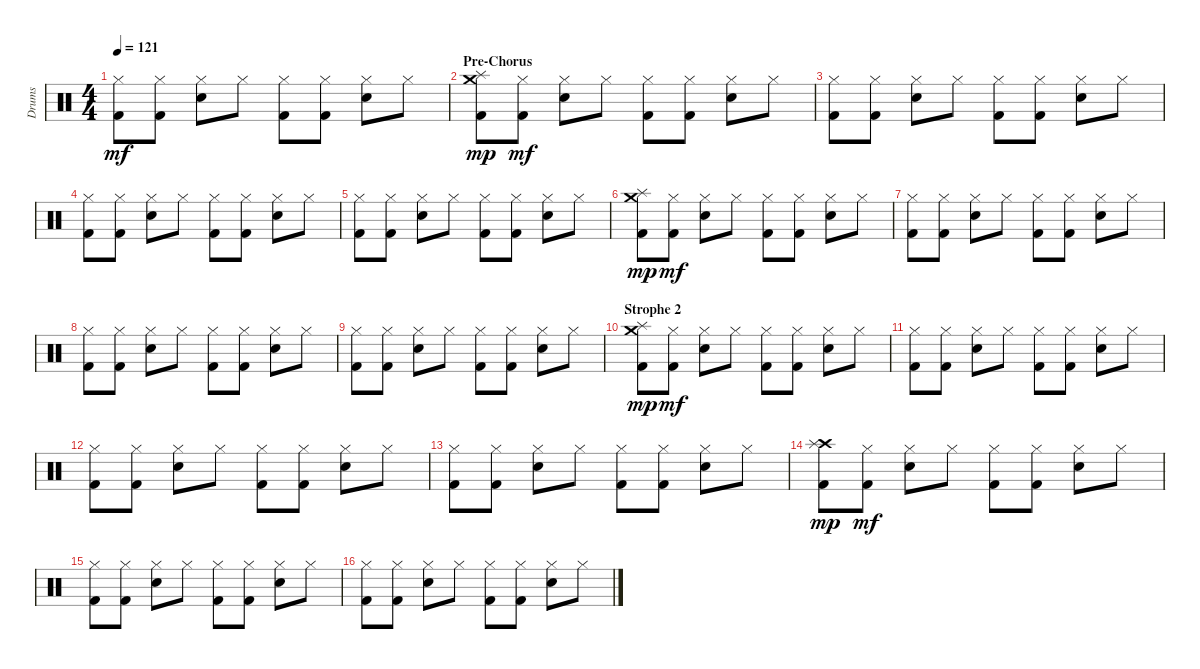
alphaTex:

\track ("Drums" "Drums") {instrument percussion}
\staff {score}
\articulation defaults
\ts (4 4)
\tempo 121
\clef neutral
\ks c
("Hi-Hat (closed)" "Kick (hit) 2").8{dy mf} ("Hi-Hat (closed)" "Kick (hit) 2").8 ("Hi-Hat (closed)" "Electric Snare (hit)").8 "Hi-Hat (closed)".8 ("Hi-Hat (closed)" "Kick (hit) 2").8 ("Hi-Hat (closed)" "Kick (hit) 2").8 ("Hi-Hat (closed)" "Electric Snare (hit)").8 "Hi-Hat (closed)".8 |
\section ("" "Pre-Chorus")
("Crash medium (hit)" "Splash (hit)" "Kick (hit) 2").8{dy mp} ("Hi-Hat (closed)" "Kick (hit) 2").8{dy mf} ("Hi-Hat (closed)" "Electric Snare (hit)").8 "Hi-Hat (closed)".8 ("Hi-Hat (closed)" "Kick (hit) 2").8 ("Hi-Hat (closed)" "Kick (hit) 2").8 ("Hi-Hat (closed)" "Electric Snare (hit)").8 "Hi-Hat (closed)".8 |
("Hi-Hat (closed)" "Kick (hit) 2").8 ("Hi-Hat (closed)" "Kick (hit) 2").8 ("Hi-Hat (closed)" "Electric Snare (hit)").8 "Hi-Hat (closed)".8 ("Hi-Hat (closed)" "Kick (hit) 2").8 ("Hi-Hat (closed)" "Kick (hit) 2").8 ("Hi-Hat (closed)" "Electric Snare (hit)").8 "Hi-Hat (closed)".8 |
("Hi-Hat (closed)" "Kick (hit) 2").8 ("Hi-Hat (closed)" "Kick (hit) 2").8 ("Hi-Hat (closed)" "Electric Snare (hit)").8 "Hi-Hat (closed)".8 ("Hi-Hat (closed)" "Kick (hit) 2").8 ("Hi-Hat (closed)" "Kick (hit) 2").8 ("Hi-Hat (closed)" "Electric Snare (hit)").8 "Hi-Hat (closed)".8 |
("Hi-Hat (closed)" "Kick (hit) 2").8 ("Hi-Hat (closed)" "Kick (hit) 2").8 ("Hi-Hat (closed)" "Electric Snare (hit)").8 "Hi-Hat (closed)".8 ("Hi-Hat (closed)" "Kick (hit) 2").8 ("Hi-Hat (closed)" "Kick (hit) 2").8 ("Hi-Hat (closed)" "Electric Snare (hit)").8 "Hi-Hat (closed)".8 |
("Crash medium (hit)" "Splash (hit)" "Kick (hit) 2").8{dy mp} ("Hi-Hat (closed)" "Kick (hit) 2").8{dy mf} ("Hi-Hat (closed)" "Electric Snare (hit)").8 "Hi-Hat (closed)".8 ("Hi-Hat (closed)" "Kick (hit) 2").8 ("Hi-Hat (closed)" "Kick (hit) 2").8 ("Hi-Hat (closed)" "Electric Snare (hit)").8 "Hi-Hat (closed)".8 |
("Hi-Hat (closed)" "Kick (hit) 2").8 ("Hi-Hat (closed)" "Kick (hit) 2").8 ("Hi-Hat (closed)" "Electric Snare (hit)").8 "Hi-Hat (closed)".8 ("Hi-Hat (closed)" "Kick (hit) 2").8 ("Hi-Hat (closed)" "Kick (hit) 2").8 ("Hi-Hat (closed)" "Electric Snare (hit)").8 "Hi-Hat (closed)".8 |
("Hi-Hat (closed)" "Kick (hit) 2").8 ("Hi-Hat (closed)" "Kick (hit) 2").8 ("Hi-Hat (closed)" "Electric Snare (hit)").8 "Hi-Hat (closed)".8 ("Hi-Hat (closed)" "Kick (hit) 2").8 ("Hi-Hat (closed)" "Kick (hit) 2").8 ("Hi-Hat (closed)" "Electric Snare (hit)").8 "Hi-Hat (closed)".8 |
("Hi-Hat (closed)" "Kick (hit) 2").8 ("Hi-Hat (closed)" "Kick (hit) 2").8 ("Hi-Hat (closed)" "Electric Snare (hit)").8 "Hi-Hat (closed)".8 ("Hi-Hat (closed)" "Kick (hit) 2").8 ("Hi-Hat (closed)" "Kick (hit) 2").8 ("Hi-Hat (closed)" "Electric Snare (hit)").8 "Hi-Hat (closed)".8 |
\section ("" "Strophe 2")
("Crash medium (hit)" "Splash (hit)" "Kick (hit) 2").8{dy mp} ("Hi-Hat (closed)" "Kick (hit) 2").8{dy mf} ("Hi-Hat (closed)" "Electric Snare (hit)").8 "Hi-Hat (closed)".8 ("Hi-Hat (closed)" "Kick (hit) 2").8 ("Hi-Hat (closed)" "Kick (hit) 2").8 ("Hi-Hat (closed)" "Electric Snare (hit)").8 "Hi-Hat (closed)".8 |
("Hi-Hat (closed)" "Kick (hit) 2").8 ("Hi-Hat (closed)" "Kick (hit) 2").8 ("Hi-Hat (closed)" "Electric Snare (hit)").8 "Hi-Hat (closed)".8 ("Hi-Hat (closed)" "Kick (hit) 2").8 ("Hi-Hat (closed)" "Kick (hit) 2").8 ("Hi-Hat (closed)" "Electric Snare (hit)").8 "Hi-Hat (closed)".8 |
("Hi-Hat (closed)" "Kick (hit) 2").8 ("Hi-Hat (closed)" "Kick (hit) 2").8 ("Hi-Hat (closed)" "Electric Snare (hit)").8 "Hi-Hat (closed)".8 ("Hi-Hat (closed)" "Kick (hit) 2").8 ("Hi-Hat (closed)" "Kick (hit) 2").8 ("Hi-Hat (closed)" "Electric Snare (hit)").8 "Hi-Hat (closed)".8 |
("Hi-Hat (closed)" "Kick (hit) 2").8 ("Hi-Hat (closed)" "Kick (hit) 2").8 ("Hi-Hat (closed)" "Electric Snare (hit)").8 "Hi-Hat (closed)".8 ("Hi-Hat (closed)" "Kick (hit) 2").8 ("Hi-Hat (closed)" "Kick (hit) 2").8 ("Hi-Hat (closed)" "Electric Snare (hit)").8 "Hi-Hat (closed)".8 |
("Crash high (hit)" "Splash (hit)" "Kick (hit) 2").8{dy mp} ("Hi-Hat (closed)" "Kick (hit) 2").8{dy mf} ("Hi-Hat (closed)" "Electric Snare (hit)").8 "Hi-Hat (closed)".8 ("Hi-Hat (closed)" "Kick (hit) 2").8 ("Hi-Hat (closed)" "Kick (hit) 2").8 ("Hi-Hat (closed)" "Electric Snare (hit)").8 "Hi-Hat (closed)".8 |
("Hi-Hat (closed)" "Kick (hit) 2").8 ("Hi-Hat (closed)" "Kick (hit) 2").8 ("Hi-Hat (closed)" "Electric Snare (hit)").8 "Hi-Hat (closed)".8 ("Hi-Hat (closed)" "Kick (hit) 2").8 ("Hi-Hat (closed)" "Kick (hit) 2").8 ("Hi-Hat (closed)" "Electric Snare (hit)").8 "Hi-Hat (closed)".8 |
("Hi-Hat (closed)" "Kick (hit) 2").8 ("Hi-Hat (closed)" "Kick (hit) 2").8 ("Hi-Hat (closed)" "Electric Snare (hit)").8 "Hi-Hat (closed)".8 ("Hi-Hat (closed)" "Kick (hit) 2").8 ("Hi-Hat (closed)" "Kick (hit) 2").8 ("Hi-Hat (closed)" "Electric Snare (hit)").8 "Hi-Hat (closed)".8
